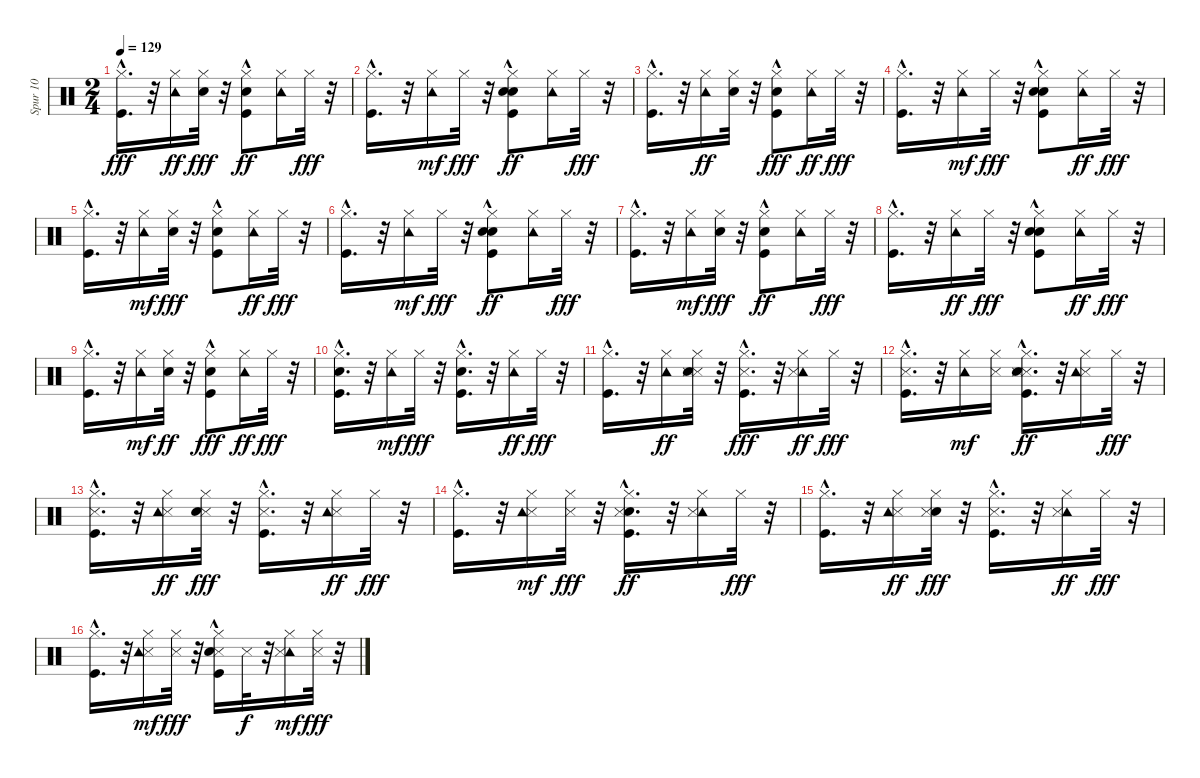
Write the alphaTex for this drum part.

\track ("Spur 10" "Spur 10") {instrument percussion}
\staff {score}
\articulation defaults
\ts (2 4)
\tempo 129
\clef neutral
\ks c
("Kick (hit)"{hac} "Hi-Hat (closed)").16{d dy fff} r.32 ("Tambourine (hit)" "Hi-Hat (closed)").16{dy ff} ("Snare (hit) 2" "Hi-Hat (closed)").32{dy fff} r.32 ("Kick (hit)"{hac} "Hi-Hat (closed)" "Hand Clap (hit)").8{dy ff} ("Hi-Hat (closed)" "Tambourine (hit)").16 "Hi-Hat (closed)".32{dy fff} r.32 |
("Kick (hit)"{hac} "Hi-Hat (closed)").16{d} r.32 ("Hi-Hat (closed)" "Tambourine (hit)").16{dy mf} "Hi-Hat (closed)".32{dy fff} r.32 ("Snare (hit) 2" "Hi-Hat (closed)" "Kick (hit)"{hac} "Hand Clap (hit)").8{dy ff} ("Tambourine (hit)" "Hi-Hat (closed)").16 "Hi-Hat (closed)".32{dy fff} r.32 |
("Kick (hit)"{hac} "Hi-Hat (closed)").16{d} r.32 ("Tambourine (hit)" "Hi-Hat (closed)").16{dy ff} ("Hi-Hat (closed)" "Snare (hit) 2").32 r.32 ("Hand Clap (hit)" "Kick (hit)"{hac} "Hi-Hat (closed)").8{dy fff} ("Tambourine (hit)" "Hi-Hat (closed)").16{dy ff} "Hi-Hat (closed)".32{dy fff} r.32 |
("Hi-Hat (closed)" "Kick (hit)"{hac}).16{d} r.32 ("Hi-Hat (closed)" "Tambourine (hit)").16{dy mf} "Hi-Hat (closed)".32{dy fff} r.32 ("Hand Clap (hit)" "Hi-Hat (closed)" "Snare (hit) 2" "Kick (hit)"{hac}).8 ("Tambourine (hit)" "Hi-Hat (closed)").16{dy ff} "Hi-Hat (closed)".32{dy fff} r.32 |
("Hi-Hat (closed)" "Kick (hit)"{hac}).16{d} r.32 ("Hi-Hat (closed)" "Tambourine (hit)").16{dy mf} ("Snare (hit) 2" "Hi-Hat (closed)").32{dy fff} r.32 ("Kick (hit)"{hac} "Hi-Hat (closed)" "Hand Clap (hit)").8 ("Hi-Hat (closed)" "Tambourine (hit)").16{dy ff} "Hi-Hat (closed)".32{dy fff} r.32 |
("Kick (hit)"{hac} "Hi-Hat (closed)").16{d} r.32 ("Hi-Hat (closed)" "Tambourine (hit)").16{dy mf} "Hi-Hat (closed)".32{dy fff} r.32 ("Hand Clap (hit)"{hac} "Kick (hit)"{hac} "Hi-Hat (closed)" "Snare (hit) 2").8{dy ff} ("Tambourine (hit)" "Hi-Hat (closed)").16 "Hi-Hat (closed)".32{dy fff} r.32 |
("Hi-Hat (closed)" "Kick (hit)"{hac}).16{d} r.32 ("Hi-Hat (closed)" "Tambourine (hit)").16{dy mf} ("Snare (hit) 2" "Hi-Hat (closed)").32{dy fff} r.32 ("Kick (hit)"{hac} "Hand Clap (hit)"{hac} "Hi-Hat (closed)").8{dy ff} ("Tambourine (hit)" "Hi-Hat (closed)").16 "Hi-Hat (closed)".32{dy fff} r.32 |
("Hi-Hat (closed)" "Kick (hit)"{hac}).16{d} r.32 ("Tambourine (hit)" "Hi-Hat (closed)").16{dy ff} "Hi-Hat (closed)".32{dy fff} r.32 ("Snare (hit) 2" "Hand Clap (hit)"{hac} "Kick (hit)"{hac} "Hi-Hat (closed)").8 ("Hi-Hat (closed)" "Tambourine (hit)").16{dy ff} "Hi-Hat (closed)".32{dy fff} r.32 |
("Hi-Hat (closed)" "Kick (hit)"{hac}).16{d} r.32 ("Hi-Hat (closed)" "Tambourine (hit)").16{dy mf} ("Hi-Hat (closed)" "Snare (hit) 2").32{dy ff} r.32 ("Hi-Hat (closed)" "Hand Clap (hit)" "Kick (hit)"{hac}).8{dy fff} ("Hi-Hat (closed)" "Tambourine (hit)").16{dy ff} "Hi-Hat (closed)".32{dy fff} r.32 |
("Hand Clap (hit)" "Hi-Hat (closed)" "Kick (hit)"{hac}).16{d} r.32 ("Hi-Hat (closed)" "Tambourine (hit)").16{dy mf} "Hi-Hat (closed)".32{dy fff} r.32 ("Snare (hit) 2" "Hi-Hat (closed)" "Kick (hit)"{hac}).16{d} r.32 ("Tambourine (hit)" "Hi-Hat (closed)").16{dy ff} "Hi-Hat (closed)".32{dy fff} r.32 |
("Kick (hit)"{hac} "Hi-Hat (closed)").16{d} r.32 ("Tambourine (hit)" "Hi-Hat (closed)").16{dy ff} ("Hi-Hat (closed)" "Snare (side stick) 3" "Snare (side stick) 3" "Snare (hit) 2").32 r.32 ("Snare (side stick) 3" "Kick (hit)"{hac} "Hi-Hat (closed)").16{d dy fff} r.32 ("Tambourine (hit)" "Hi-Hat (closed)" "Snare (side stick) 3").16{dy ff} "Hi-Hat (closed)".32{dy fff} r.32 |
("Hi-Hat (closed)" "Snare (side stick) 3" "Kick (hit)"{hac}).16{d} r.32 ("Hi-Hat (closed)" "Tambourine (hit)").16{dy mf} ("Hi-Hat (closed)" "Snare (side stick) 3").16 ("Snare (side stick) 3" "Hi-Hat (closed)" "Kick (hit)"{hac} "Snare (side stick) 3" "Snare (hit) 2").16{d dy ff} r.32 ("Snare (side stick) 3" "Tambourine (hit)" "Hi-Hat (closed)").16 "Hi-Hat (closed)".32{dy fff} r.32 |
("Snare (side stick) 3" "Hi-Hat (closed)" "Kick (hit)"{hac}).16{d} r.32 ("Snare (side stick) 3" "Tambourine (hit)" "Hi-Hat (closed)").16{dy ff} ("Snare (side stick) 3" "Snare (hit) 2" "Hi-Hat (closed)").32{dy fff} r.32 ("Hi-Hat (closed)" "Snare (side stick) 3" "Kick (hit)"{hac}).16{d} r.32 ("Snare (side stick) 3" "Hi-Hat (closed)" "Tambourine (hit)").16{dy ff} "Hi-Hat (closed)".32{dy fff} r.32 |
("Hi-Hat (closed)" "Kick (hit)"{hac}).16{d} r.32 ("Hi-Hat (closed)" "Snare (side stick) 3" "Tambourine (hit)").16{dy mf} ("Snare (side stick) 3" "Hi-Hat (closed)").32{dy fff} r.32 ("Kick (hit)"{hac} "Snare (hit) 2" "Hi-Hat (closed)" "Snare (side stick) 3").16{d dy ff} r.32 ("Tambourine (hit)" "Snare (side stick) 3" "Hi-Hat (closed)").16 "Hi-Hat (closed)".32{dy fff} r.32 |
("Kick (hit)"{hac} "Hi-Hat (closed)").16{d} r.32 ("Snare (side stick) 3" "Tambourine (hit)" "Hi-Hat (closed)").16{dy ff} ("Snare (hit) 2" "Snare (side stick) 3" "Hi-Hat (closed)").32{dy fff} r.32 ("Snare (side stick) 3" "Hi-Hat (closed)" "Kick (hit)"{hac}).16{d} r.32 ("Hi-Hat (closed)" "Tambourine (hit)" "Snare (side stick) 3").16{dy ff} "Hi-Hat (closed)".32{dy fff} r.32 |
("Kick (hit)"{hac} "Hi-Hat (closed)").16{d} r.32 ("Hi-Hat (closed)" "Snare (side stick) 3" "Tambourine (hit)").16{dy mf} ("Snare (side stick) 3" "Hi-Hat (closed)").32{dy fff} r.32 ("Snare (side stick) 3" "Snare (hit) 2" "Hi-Hat (closed)" "Kick (hit)"{hac}).16 "Snare (side stick) 3".32{dy f} r.32 ("Hi-Hat (closed)" "Tambourine (hit)" "Snare (side stick) 3").16{dy mf} ("Snare (side stick) 3" "Hi-Hat (closed)").32{dy fff} r.32
